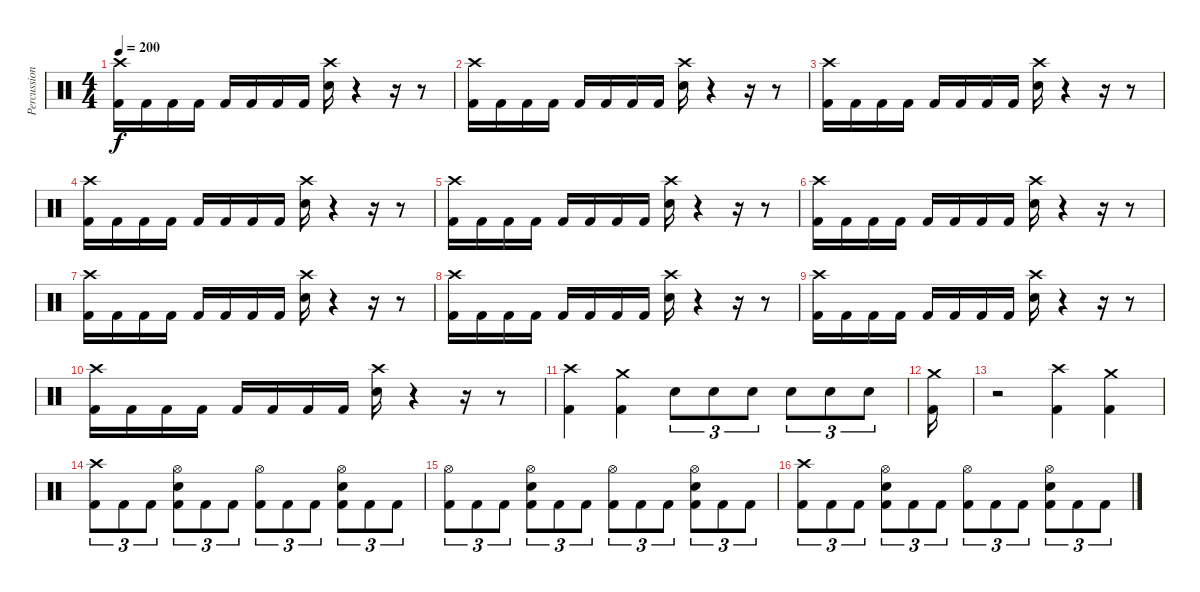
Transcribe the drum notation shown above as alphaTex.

\track ("Percussion" "Percussion") {instrument percussion}
\staff {score}
\articulation defaults
\ts (4 4)
\tempo 200
\clef neutral
\ks c
("Crash high (hit)" "Kick (hit) 2").16{dy f} "Kick (hit) 2".16 "Kick (hit) 2".16 "Kick (hit) 2".16 "Kick (hit) 2".16 "Kick (hit) 2".16 "Kick (hit) 2".16 "Kick (hit) 2".16 ("Crash high (hit)" "Electric Snare (hit)").16 r.4 r.16 r.8 |
("Crash high (hit)" "Kick (hit) 2").16 "Kick (hit) 2".16 "Kick (hit) 2".16 "Kick (hit) 2".16 "Kick (hit) 2".16 "Kick (hit) 2".16 "Kick (hit) 2".16 "Kick (hit) 2".16 ("Crash high (hit)" "Electric Snare (hit)").16 r.4 r.16 r.8 |
("Crash high (hit)" "Kick (hit) 2").16 "Kick (hit) 2".16 "Kick (hit) 2".16 "Kick (hit) 2".16 "Kick (hit) 2".16 "Kick (hit) 2".16 "Kick (hit) 2".16 "Kick (hit) 2".16 ("Crash high (hit)" "Electric Snare (hit)").16 r.4 r.16 r.8 |
("Crash high (hit)" "Kick (hit) 2").16 "Kick (hit) 2".16 "Kick (hit) 2".16 "Kick (hit) 2".16 "Kick (hit) 2".16 "Kick (hit) 2".16 "Kick (hit) 2".16 "Kick (hit) 2".16 ("Crash high (hit)" "Electric Snare (hit)").16 r.4 r.16 r.8 |
("Crash high (hit)" "Kick (hit) 2").16 "Kick (hit) 2".16 "Kick (hit) 2".16 "Kick (hit) 2".16 "Kick (hit) 2".16 "Kick (hit) 2".16 "Kick (hit) 2".16 "Kick (hit) 2".16 ("Crash high (hit)" "Electric Snare (hit)").16 r.4 r.16 r.8 |
("Crash high (hit)" "Kick (hit) 2").16 "Kick (hit) 2".16 "Kick (hit) 2".16 "Kick (hit) 2".16 "Kick (hit) 2".16 "Kick (hit) 2".16 "Kick (hit) 2".16 "Kick (hit) 2".16 ("Crash high (hit)" "Electric Snare (hit)").16 r.4 r.16 r.8 |
("Crash high (hit)" "Kick (hit) 2").16 "Kick (hit) 2".16 "Kick (hit) 2".16 "Kick (hit) 2".16 "Kick (hit) 2".16 "Kick (hit) 2".16 "Kick (hit) 2".16 "Kick (hit) 2".16 ("Crash high (hit)" "Electric Snare (hit)").16 r.4 r.16 r.8 |
("Crash high (hit)" "Kick (hit) 2").16 "Kick (hit) 2".16 "Kick (hit) 2".16 "Kick (hit) 2".16 "Kick (hit) 2".16 "Kick (hit) 2".16 "Kick (hit) 2".16 "Kick (hit) 2".16 ("Crash high (hit)" "Electric Snare (hit)").16 r.4 r.16 r.8 |
("Crash high (hit)" "Kick (hit) 2").16 "Kick (hit) 2".16 "Kick (hit) 2".16 "Kick (hit) 2".16 "Kick (hit) 2".16 "Kick (hit) 2".16 "Kick (hit) 2".16 "Kick (hit) 2".16 ("Crash high (hit)" "Electric Snare (hit)").16 r.4 r.16 r.8 |
("Crash high (hit)" "Kick (hit) 2").16 "Kick (hit) 2".16 "Kick (hit) 2".16 "Kick (hit) 2".16 "Kick (hit) 2".16 "Kick (hit) 2".16 "Kick (hit) 2".16 "Kick (hit) 2".16 ("Crash high (hit)" "Electric Snare (hit)").16 r.4 r.16 r.8 |
("Crash high (hit)" "Kick (hit) 2").4 ("Crash medium (hit)" "Kick (hit) 2").4 "Electric Snare (hit)".8{tu (3 2)} "Electric Snare (hit)".8{tu (3 2)} "Electric Snare (hit)".8{tu (3 2)} "Electric Snare (hit)".8{tu (3 2)} "Electric Snare (hit)".8{tu (3 2)} "Electric Snare (hit)".8{tu (3 2)} |
("Kick (hit) 2" "Crash medium (hit)").16 |
r.2 ("Crash high (hit)" "Kick (hit) 2").4 ("Crash medium (hit)" "Kick (hit) 2").4 |
("Crash high (hit)" "Kick (hit) 2").8{tu (3 2)} "Kick (hit) 2".8{tu (3 2)} "Kick (hit) 2".8{tu (3 2)} ("Hi-Hat (open)" "Electric Snare (hit)" "Kick (hit) 2").8{tu (3 2)} "Kick (hit) 2".8{tu (3 2)} "Kick (hit) 2".8{tu (3 2)} ("Hi-Hat (open)" "Kick (hit) 2").8{tu (3 2)} "Kick (hit) 2".8{tu (3 2)} "Kick (hit) 2".8{tu (3 2)} ("Hi-Hat (open)" "Electric Snare (hit)" "Kick (hit) 2").8{tu (3 2)} "Kick (hit) 2".8{tu (3 2)} "Kick (hit) 2".8{tu (3 2)} |
("Hi-Hat (open)" "Kick (hit) 2").8{tu (3 2)} "Kick (hit) 2".8{tu (3 2)} "Kick (hit) 2".8{tu (3 2)} ("Hi-Hat (open)" "Electric Snare (hit)" "Kick (hit) 2").8{tu (3 2)} "Kick (hit) 2".8{tu (3 2)} "Kick (hit) 2".8{tu (3 2)} ("Hi-Hat (open)" "Kick (hit) 2").8{tu (3 2)} "Kick (hit) 2".8{tu (3 2)} "Kick (hit) 2".8{tu (3 2)} ("Hi-Hat (open)" "Electric Snare (hit)" "Kick (hit) 2").8{tu (3 2)} "Kick (hit) 2".8{tu (3 2)} "Kick (hit) 2".8{tu (3 2)} |
("Crash high (hit)" "Kick (hit) 2").8{tu (3 2)} "Kick (hit) 2".8{tu (3 2)} "Kick (hit) 2".8{tu (3 2)} ("Hi-Hat (open)" "Electric Snare (hit)" "Kick (hit) 2").8{tu (3 2)} "Kick (hit) 2".8{tu (3 2)} "Kick (hit) 2".8{tu (3 2)} ("Hi-Hat (open)" "Kick (hit) 2").8{tu (3 2)} "Kick (hit) 2".8{tu (3 2)} "Kick (hit) 2".8{tu (3 2)} ("Hi-Hat (open)" "Electric Snare (hit)" "Kick (hit) 2").8{tu (3 2)} "Kick (hit) 2".8{tu (3 2)} "Kick (hit) 2".8{tu (3 2)}
